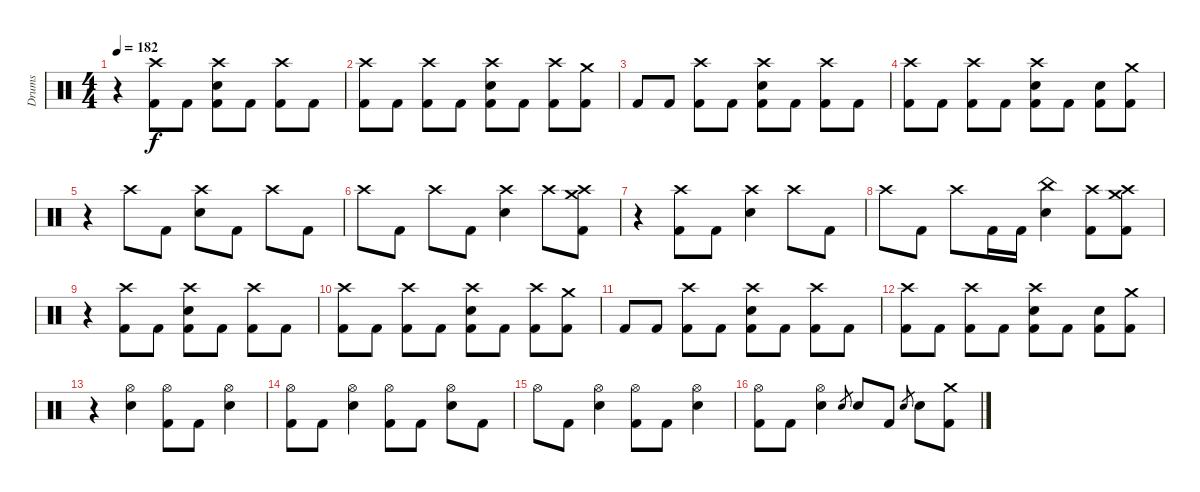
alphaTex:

\track ("Drums" "Drums") {instrument percussion}
\staff {score}
\articulation defaults
\ts (4 4)
\tempo 182
\clef neutral
\ks c
r.4{dy f} ("Crash high (hit)" "Kick (hit) 2").8 "Kick (hit) 2".8 ("Crash high (hit)" "Snare (hit) 2" "Kick (hit) 2").8 "Kick (hit) 2".8 ("Crash high (hit)" "Kick (hit) 2").8 "Kick (hit) 2".8 |
("Crash high (hit)" "Kick (hit) 2").8 "Kick (hit) 2".8 ("Crash high (hit)" "Kick (hit) 2").8 "Kick (hit) 2".8 ("Crash high (hit)" "Snare (hit) 2" "Kick (hit) 2").8 "Kick (hit) 2".8 ("Crash high (hit)" "Kick (hit) 2").8 ("Crash medium (hit)" "Kick (hit) 2").8 |
"Kick (hit) 2".8 "Kick (hit) 2".8 ("Crash high (hit)" "Kick (hit) 2").8 "Kick (hit) 2".8 ("Crash high (hit)" "Snare (hit) 2" "Kick (hit) 2").8 "Kick (hit) 2".8 ("Crash high (hit)" "Kick (hit) 2").8 "Kick (hit) 2".8 |
("Crash high (hit)" "Kick (hit) 2").8 "Kick (hit) 2".8 ("Crash high (hit)" "Kick (hit) 2").8 "Kick (hit) 2".8 ("Crash high (hit)" "Snare (hit) 2" "Kick (hit) 2").8 "Kick (hit) 2".8 ("Snare (hit) 2" "Kick (hit) 2").8 ("Crash medium (hit)" "Kick (hit) 2").8 |
r.4 "Crash high (hit)".8 "Kick (hit) 2".8 ("Crash high (hit)" "Snare (hit) 2").8 "Kick (hit) 2".8 "Crash high (hit)".8 "Kick (hit) 2".8 |
"Crash high (hit)".8 "Kick (hit) 2".8 "Crash high (hit)".8 "Kick (hit) 2".8 ("Crash high (hit)" "Snare (hit) 2").4 "Crash high (hit)".8 ("Crash medium (hit)" "Crash high (hit)" "Kick (hit) 2").8 |
r.4 ("Crash high (hit)" "Kick (hit) 2").8 "Kick (hit) 2".8 ("Crash high (hit)" "Snare (hit) 2").4 "Crash high (hit)".8 "Kick (hit) 2".8 |
"Crash high (hit)".8 "Kick (hit) 2".8 "Crash high (hit)".8 "Kick (hit) 2".16 "Kick (hit) 2".16 ("China (hit)" "Snare (hit) 2").4 ("Crash high (hit)" "Kick (hit) 2").8 ("Crash medium (hit)" "Crash high (hit)" "Kick (hit) 2").8 |
r.4 ("Crash high (hit)" "Kick (hit) 2").8 "Kick (hit) 2".8 ("Crash high (hit)" "Snare (hit) 2" "Kick (hit) 2").8 "Kick (hit) 2".8 ("Crash high (hit)" "Kick (hit) 2").8 "Kick (hit) 2".8 |
("Crash high (hit)" "Kick (hit) 2").8 "Kick (hit) 2".8 ("Crash high (hit)" "Kick (hit) 2").8 "Kick (hit) 2".8 ("Crash high (hit)" "Snare (hit) 2" "Kick (hit) 2").8 "Kick (hit) 2".8 ("Crash high (hit)" "Kick (hit) 2").8 ("Crash medium (hit)" "Kick (hit) 2").8 |
"Kick (hit) 2".8 "Kick (hit) 2".8 ("Crash high (hit)" "Kick (hit) 2").8 "Kick (hit) 2".8 ("Crash high (hit)" "Snare (hit) 2" "Kick (hit) 2").8 "Kick (hit) 2".8 ("Crash high (hit)" "Kick (hit) 2").8 "Kick (hit) 2".8 |
("Crash high (hit)" "Kick (hit) 2").8 "Kick (hit) 2".8 ("Crash high (hit)" "Kick (hit) 2").8 "Kick (hit) 2".8 ("Crash high (hit)" "Snare (hit) 2" "Kick (hit) 2").8 "Kick (hit) 2".8 ("Snare (hit) 2" "Kick (hit) 2").8 ("Crash medium (hit)" "Kick (hit) 2").8 |
r.4 ("Hi-Hat (open)" "Snare (hit) 2").4 ("Hi-Hat (open)" "Kick (hit) 2").8 "Kick (hit) 2".8 ("Hi-Hat (open)" "Snare (hit) 2").4 |
("Hi-Hat (open)" "Kick (hit) 2").8 "Kick (hit) 2".8 ("Hi-Hat (open)" "Snare (hit) 2").4 ("Hi-Hat (open)" "Kick (hit) 2").8 "Kick (hit) 2".8 ("Hi-Hat (open)" "Snare (hit) 2").8 "Kick (hit) 2".8 |
"Hi-Hat (open)".8 "Kick (hit) 2".8 ("Hi-Hat (open)" "Snare (hit) 2").4 ("Hi-Hat (open)" "Kick (hit) 2").8 "Kick (hit) 2".8 ("Hi-Hat (open)" "Snare (hit) 2").4 |
("Hi-Hat (open)" "Kick (hit) 2").8 "Kick (hit) 2".8 ("Hi-Hat (open)" "Snare (hit) 2").4 "Snare (hit) 2".8{gr} "Snare (hit) 2".8 "Kick (hit) 2".8 "Snare (hit) 2".8{gr} "Snare (hit) 2".8 ("Crash medium (hit)" "Kick (hit) 2").8
